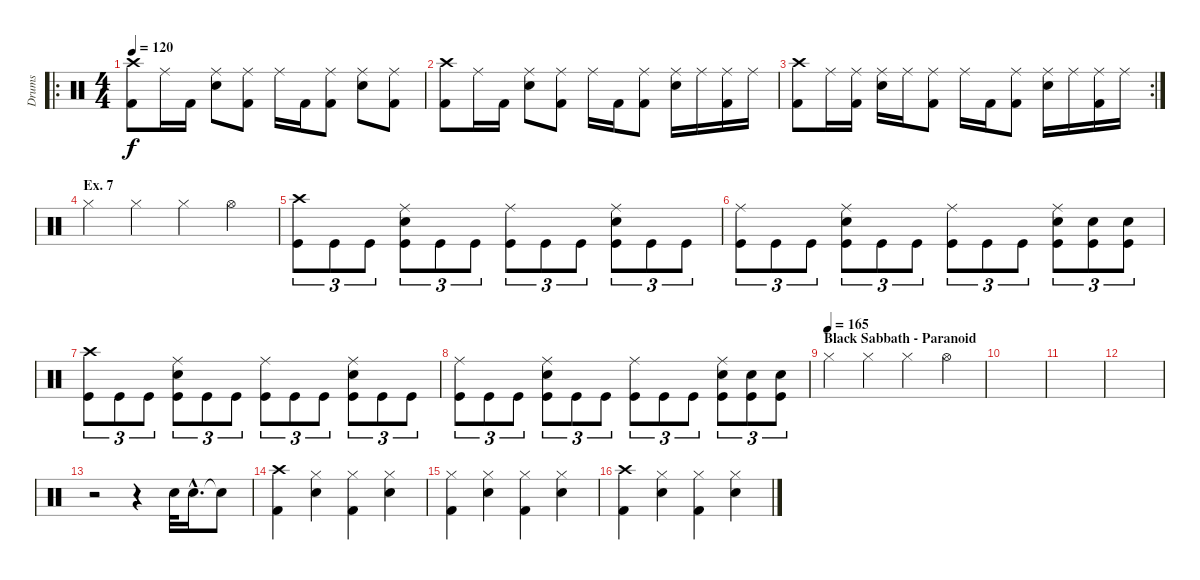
\track ("Drums" "Drums") {instrument percussion}
\staff {score}
\articulation defaults
\ro
\ts (4 4)
\tempo 120
\clef neutral
\ks c
("Crash high (hit)" "Kick (hit) 2").8{dy f} "Ride (middle)".16 "Kick (hit) 2".16 ("Ride (middle)" "Snare (hit) 2").8 ("Ride (middle)" "Kick (hit) 2").8 "Ride (middle)".16 "Kick (hit) 2".16 ("Ride (middle)" "Kick (hit) 2").8 ("Ride (middle)" "Snare (hit) 2").8 ("Ride (middle)" "Kick (hit) 2").8 |
("Crash high (hit)" "Kick (hit) 2").8 "Ride (middle)".16 "Kick (hit) 2".16 ("Ride (middle)" "Snare (hit) 2").8 ("Ride (middle)" "Kick (hit) 2").8 "Ride (middle)".16 "Kick (hit) 2".16 ("Ride (middle)" "Kick (hit) 2").8 ("Ride (middle)" "Snare (hit) 2").16 "Ride (middle)".16 ("Ride (middle)" "Kick (hit) 2").16 "Ride (middle)".16 |
\rc 2
("Crash high (hit)" "Kick (hit) 2").8 "Ride (middle)".16 ("Ride (middle)" "Kick (hit) 2").16 ("Ride (middle)" "Snare (hit) 2").16 "Ride (middle)".16 ("Ride (middle)" "Kick (hit) 2").8 "Ride (middle)".16 "Kick (hit) 2".16 ("Ride (middle)" "Kick (hit) 2").8 ("Ride (middle)" "Snare (hit) 2").16 "Ride (middle)".16 ("Ride (middle)" "Kick (hit) 2").16 "Ride (middle)".16 |
\section ("" "Ex. 7")
"Hi-Hat (closed)".4 "Hi-Hat (closed)".4 "Hi-Hat (closed)".4 "Hi-Hat (open)".4 |
("Crash high (hit)" "Kick (hit)").8{tu (3 2)} "Kick (hit)".8{tu (3 2)} "Kick (hit)".8{tu (3 2)} ("Ride (middle)" "Snare (hit) 2" "Kick (hit)").8{tu (3 2)} "Kick (hit)".8{tu (3 2)} "Kick (hit)".8{tu (3 2)} ("Ride (middle)" "Kick (hit)").8{tu (3 2)} "Kick (hit)".8{tu (3 2)} "Kick (hit)".8{tu (3 2)} ("Ride (middle)" "Snare (hit) 2" "Kick (hit)").8{tu (3 2)} "Kick (hit)".8{tu (3 2)} "Kick (hit)".8{tu (3 2)} |
("Ride (middle)" "Kick (hit)").8{tu (3 2)} "Kick (hit)".8{tu (3 2)} "Kick (hit)".8{tu (3 2)} ("Ride (middle)" "Snare (hit) 2" "Kick (hit)").8{tu (3 2)} "Kick (hit)".8{tu (3 2)} "Kick (hit)".8{tu (3 2)} ("Ride (middle)" "Kick (hit)").8{tu (3 2)} "Kick (hit)".8{tu (3 2)} "Kick (hit)".8{tu (3 2)} ("Ride (middle)" "Snare (hit) 2" "Kick (hit)").8{tu (3 2)} ("Snare (hit) 2" "Kick (hit)").8{tu (3 2)} ("Snare (hit) 2" "Kick (hit)").8{tu (3 2)} |
("Crash high (hit)" "Kick (hit)").8{tu (3 2)} "Kick (hit)".8{tu (3 2)} "Kick (hit)".8{tu (3 2)} ("Ride (middle)" "Snare (hit) 2" "Kick (hit)").8{tu (3 2)} "Kick (hit)".8{tu (3 2)} "Kick (hit)".8{tu (3 2)} ("Ride (middle)" "Kick (hit)").8{tu (3 2)} "Kick (hit)".8{tu (3 2)} "Kick (hit)".8{tu (3 2)} ("Ride (middle)" "Snare (hit) 2" "Kick (hit)").8{tu (3 2)} "Kick (hit)".8{tu (3 2)} "Kick (hit)".8{tu (3 2)} |
("Ride (middle)" "Kick (hit)").8{tu (3 2)} "Kick (hit)".8{tu (3 2)} "Kick (hit)".8{tu (3 2)} ("Ride (middle)" "Snare (hit) 2" "Kick (hit)").8{tu (3 2)} "Kick (hit)".8{tu (3 2)} "Kick (hit)".8{tu (3 2)} ("Ride (middle)" "Kick (hit)").8{tu (3 2)} "Kick (hit)".8{tu (3 2)} "Kick (hit)".8{tu (3 2)} ("Ride (middle)" "Snare (hit) 2" "Kick (hit)").8{tu (3 2)} ("Snare (hit) 2" "Kick (hit)").8{tu (3 2)} ("Snare (hit) 2" "Kick (hit)").8{tu (3 2)} |
\section ("" "Black Sabbath - Paranoid")
\tempo (165)
"Hi-Hat (closed)".4 "Hi-Hat (closed)".4 "Hi-Hat (closed)".4 "Hi-Hat (open)".4 |
|
|
|
r.2 r.4 "Electric Snare (hit)".32 "Electric Snare (hit)"{hac}.16{d} "Electric Snare (hit)"{t}.8 |
("Crash high (hit)" "Kick (hit) 2").4 ("Hi-Hat (closed)" "Snare (hit) 2").4 ("Hi-Hat (closed)" "Kick (hit) 2").4 ("Hi-Hat (closed)" "Snare (hit) 2").4 |
("Hi-Hat (closed)" "Kick (hit) 2").4 ("Hi-Hat (closed)" "Snare (hit) 2").4 ("Hi-Hat (closed)" "Kick (hit) 2").4 ("Hi-Hat (closed)" "Snare (hit) 2").4 |
("Crash high (hit)" "Kick (hit) 2").4 ("Hi-Hat (closed)" "Snare (hit) 2").4 ("Hi-Hat (closed)" "Kick (hit) 2").4 ("Hi-Hat (closed)" "Snare (hit) 2").4
